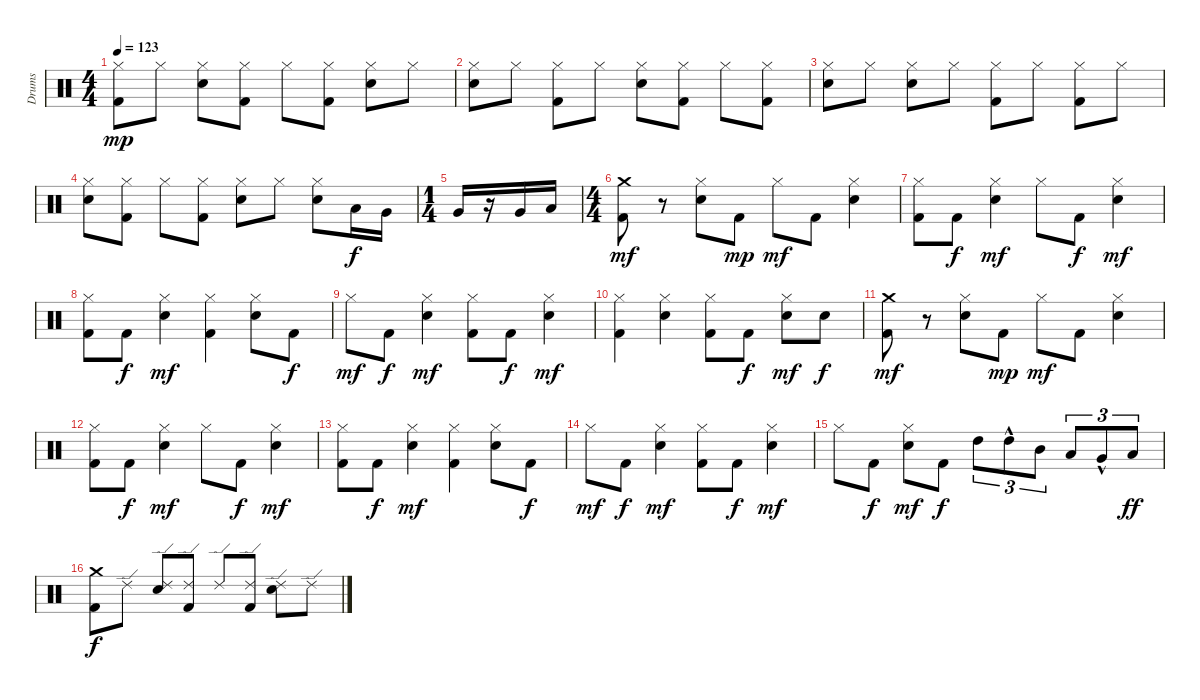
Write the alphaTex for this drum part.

\track ("Drums" "Drums") {instrument percussion}
\staff {score}
\articulation defaults
\ts (4 4)
\tempo 123
\clef neutral
\ks c
("Kick (hit) 2" "Hi-Hat (closed)").8{dy mp} "Hi-Hat (closed)".8 ("Electric Snare (hit)" "Hi-Hat (closed)").8 ("Kick (hit) 2" "Hi-Hat (closed)").8 "Hi-Hat (closed)".8 ("Kick (hit) 2" "Hi-Hat (closed)").8 ("Electric Snare (hit)" "Hi-Hat (closed)").8 "Hi-Hat (closed)".8 |
("Electric Snare (hit)" "Hi-Hat (closed)").8 "Hi-Hat (closed)".8 ("Kick (hit) 2" "Hi-Hat (closed)").8 "Hi-Hat (closed)".8 ("Electric Snare (hit)" "Hi-Hat (closed)").8 ("Kick (hit) 2" "Hi-Hat (closed)").8 "Hi-Hat (closed)".8 ("Kick (hit) 2" "Hi-Hat (closed)").8 |
("Electric Snare (hit)" "Hi-Hat (closed)").8 "Hi-Hat (closed)".8 ("Electric Snare (hit)" "Hi-Hat (closed)").8 "Hi-Hat (closed)".8 ("Kick (hit) 2" "Hi-Hat (closed)").8 "Hi-Hat (closed)".8 ("Kick (hit) 2" "Hi-Hat (closed)").8 "Hi-Hat (closed)".8 |
("Electric Snare (hit)" "Hi-Hat (closed)").8 ("Kick (hit) 2" "Hi-Hat (closed)").8 "Hi-Hat (closed)".8 ("Kick (hit) 2" "Hi-Hat (closed)").8 ("Electric Snare (hit)" "Hi-Hat (closed)").8 "Hi-Hat (closed)".8 ("Electric Snare (hit)" "Hi-Hat (closed)").8 "Low Tom (hit)".16{dy f} "Very Low Tom (hit)".16 |
\ts (1 4)
"Very Low Tom (hit)".16 r.16 "Very Low Tom (hit)".16 "Low Floor Tom (hit)".16 |
\ts (4 4)
("Kick (hit) 2" "Crash medium (hit)").8{dy mf} r.8 ("Electric Snare (hit)" "Hi-Hat (closed)").8 "Kick (hit) 2".8{dy mp} "Hi-Hat (closed)".8{dy mf} "Kick (hit) 2".8 ("Electric Snare (hit)" "Hi-Hat (closed)").4 |
("Kick (hit) 2" "Hi-Hat (closed)").8 "Kick (hit) 2".8{dy f} ("Electric Snare (hit)" "Hi-Hat (closed)").4{dy mf} "Hi-Hat (closed)".8 "Kick (hit) 2".8{dy f} ("Electric Snare (hit)" "Hi-Hat (closed)").4{dy mf} |
("Kick (hit) 2" "Hi-Hat (closed)").8 "Kick (hit) 2".8{dy f} ("Electric Snare (hit)" "Hi-Hat (closed)").4{dy mf} ("Kick (hit) 2" "Hi-Hat (closed)").4 ("Electric Snare (hit)" "Hi-Hat (closed)").8 "Kick (hit) 2".8{dy f} |
"Hi-Hat (closed)".8{dy mf} "Kick (hit) 2".8{dy f} ("Electric Snare (hit)" "Hi-Hat (closed)").4{dy mf} ("Kick (hit) 2" "Hi-Hat (closed)").8 "Kick (hit) 2".8{dy f} ("Electric Snare (hit)" "Hi-Hat (closed)").4{dy mf} |
("Kick (hit) 2" "Hi-Hat (closed)").4 ("Electric Snare (hit)" "Hi-Hat (closed)").4 ("Kick (hit) 2" "Hi-Hat (closed)").8 "Kick (hit) 2".8{dy f} ("Electric Snare (hit)" "Hi-Hat (closed)").8{dy mf} "Electric Snare (hit)".8{dy f} |
("Kick (hit) 2" "Crash medium (hit)").8{dy mf} r.8 ("Electric Snare (hit)" "Hi-Hat (closed)").8 "Kick (hit) 2".8{dy mp} "Hi-Hat (closed)".8{dy mf} "Kick (hit) 2".8 ("Electric Snare (hit)" "Hi-Hat (closed)").4 |
("Kick (hit) 2" "Hi-Hat (closed)").8 "Kick (hit) 2".8{dy f} ("Electric Snare (hit)" "Hi-Hat (closed)").4{dy mf} "Hi-Hat (closed)".8 "Kick (hit) 2".8{dy f} ("Electric Snare (hit)" "Hi-Hat (closed)").4{dy mf} |
("Kick (hit) 2" "Hi-Hat (closed)").8 "Kick (hit) 2".8{dy f} ("Electric Snare (hit)" "Hi-Hat (closed)").4{dy mf} ("Kick (hit) 2" "Hi-Hat (closed)").4 ("Electric Snare (hit)" "Hi-Hat (closed)").8 "Kick (hit) 2".8{dy f} |
"Hi-Hat (closed)".8{dy mf} "Kick (hit) 2".8{dy f} ("Electric Snare (hit)" "Hi-Hat (closed)").4{dy mf} ("Kick (hit) 2" "Hi-Hat (closed)").8 "Kick (hit) 2".8{dy f} ("Electric Snare (hit)" "Hi-Hat (closed)").4{dy mf} |
"Hi-Hat (closed)".8 "Kick (hit) 2".8{dy f} ("Electric Snare (hit)" "Hi-Hat (closed)").8{dy mf} "Kick (hit) 2".8{dy f} "High Tom (hit)".8{tu (3 2)} "High Tom (hit)"{hac}.8{tu (3 2)} "Mid Tom (hit)".8{tu (3 2)} "Low Tom (hit)".8{tu (3 2)} "Very Low Tom (hit)"{hac}.8{tu (3 2)} "Low Floor Tom (hit)".8{tu (3 2) dy ff} |
("Kick (hit) 2" "Crash medium (hit)").8{dy f} "Ride (edge) 2".8 ("Electric Snare (hit)" "Ride (edge) 2").8 ("Kick (hit) 2" "Ride (edge) 2").8 "Ride (edge) 2".8 ("Kick (hit) 2" "Ride (edge) 2").8 ("Electric Snare (hit)" "Ride (edge) 2").8 "Ride (edge) 2".8
